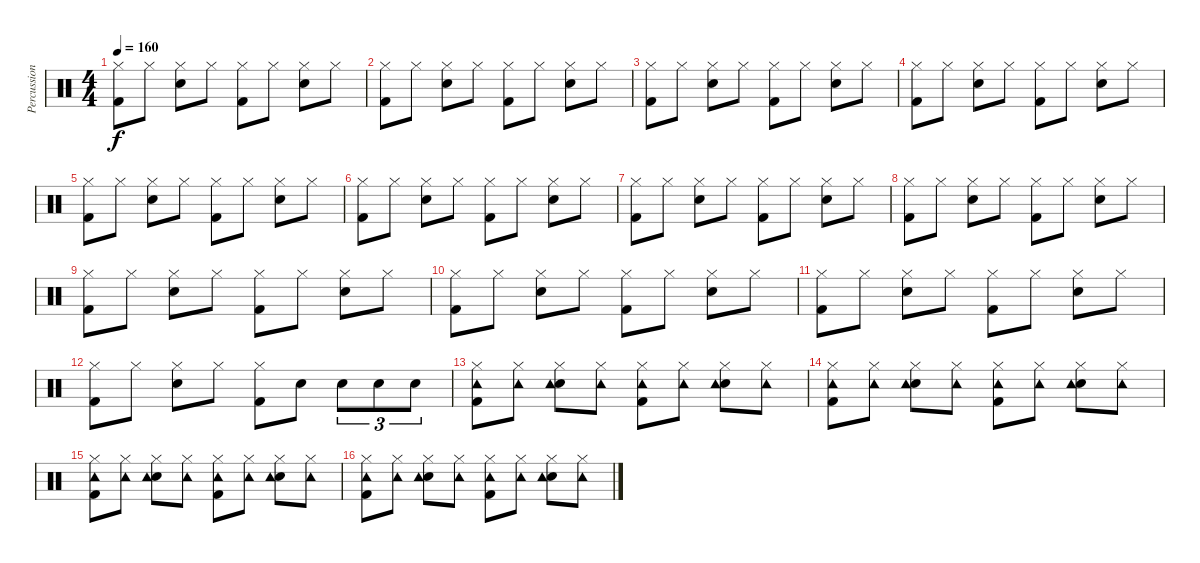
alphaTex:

\track ("Percussion" "Percussion") {instrument percussion}
\staff {score}
\articulation defaults
\ts (4 4)
\tempo 160
\clef neutral
\ks c
("Hi-Hat (closed)" "Kick (hit) 2").8{dy f} "Hi-Hat (closed)".8 ("Hi-Hat (closed)" "Snare (hit) 2").8 "Hi-Hat (closed)".8 ("Hi-Hat (closed)" "Kick (hit) 2").8 "Hi-Hat (closed)".8 ("Hi-Hat (closed)" "Snare (hit) 2").8 "Hi-Hat (closed)".8 |
("Hi-Hat (closed)" "Kick (hit) 2").8 "Hi-Hat (closed)".8 ("Hi-Hat (closed)" "Snare (hit) 2").8 "Hi-Hat (closed)".8 ("Hi-Hat (closed)" "Kick (hit) 2").8 "Hi-Hat (closed)".8 ("Hi-Hat (closed)" "Snare (hit) 2").8 "Hi-Hat (closed)".8 |
("Hi-Hat (closed)" "Kick (hit) 2").8 "Hi-Hat (closed)".8 ("Hi-Hat (closed)" "Snare (hit) 2").8 "Hi-Hat (closed)".8 ("Hi-Hat (closed)" "Kick (hit) 2").8 "Hi-Hat (closed)".8 ("Hi-Hat (closed)" "Snare (hit) 2").8 "Hi-Hat (closed)".8 |
("Hi-Hat (closed)" "Kick (hit) 2").8 "Hi-Hat (closed)".8 ("Hi-Hat (closed)" "Snare (hit) 2").8 "Hi-Hat (closed)".8 ("Hi-Hat (closed)" "Kick (hit) 2").8 "Hi-Hat (closed)".8 ("Hi-Hat (closed)" "Snare (hit) 2").8 "Hi-Hat (closed)".8 |
("Hi-Hat (closed)" "Kick (hit) 2").8 "Hi-Hat (closed)".8 ("Hi-Hat (closed)" "Snare (hit) 2").8 "Hi-Hat (closed)".8 ("Hi-Hat (closed)" "Kick (hit) 2").8 "Hi-Hat (closed)".8 ("Hi-Hat (closed)" "Snare (hit) 2").8 "Hi-Hat (closed)".8 |
("Hi-Hat (closed)" "Kick (hit) 2").8 "Hi-Hat (closed)".8 ("Hi-Hat (closed)" "Snare (hit) 2").8 "Hi-Hat (closed)".8 ("Hi-Hat (closed)" "Kick (hit) 2").8 "Hi-Hat (closed)".8 ("Hi-Hat (closed)" "Snare (hit) 2").8 "Hi-Hat (closed)".8 |
("Hi-Hat (closed)" "Kick (hit) 2").8 "Hi-Hat (closed)".8 ("Hi-Hat (closed)" "Snare (hit) 2").8 "Hi-Hat (closed)".8 ("Hi-Hat (closed)" "Kick (hit) 2").8 "Hi-Hat (closed)".8 ("Hi-Hat (closed)" "Snare (hit) 2").8 "Hi-Hat (closed)".8 |
("Hi-Hat (closed)" "Kick (hit) 2").8 "Hi-Hat (closed)".8 ("Hi-Hat (closed)" "Snare (hit) 2").8 "Hi-Hat (closed)".8 ("Hi-Hat (closed)" "Kick (hit) 2").8 "Hi-Hat (closed)".8 ("Hi-Hat (closed)" "Snare (hit) 2").8 "Hi-Hat (closed)".8 |
("Hi-Hat (closed)" "Kick (hit) 2").8 "Hi-Hat (closed)".8 ("Hi-Hat (closed)" "Snare (hit) 2").8 "Hi-Hat (closed)".8 ("Hi-Hat (closed)" "Kick (hit) 2").8 "Hi-Hat (closed)".8 ("Hi-Hat (closed)" "Snare (hit) 2").8 "Hi-Hat (closed)".8 |
("Hi-Hat (closed)" "Kick (hit) 2").8 "Hi-Hat (closed)".8 ("Hi-Hat (closed)" "Snare (hit) 2").8 "Hi-Hat (closed)".8 ("Hi-Hat (closed)" "Kick (hit) 2").8 "Hi-Hat (closed)".8 ("Hi-Hat (closed)" "Snare (hit) 2").8 "Hi-Hat (closed)".8 |
("Hi-Hat (closed)" "Kick (hit) 2").8 "Hi-Hat (closed)".8 ("Hi-Hat (closed)" "Snare (hit) 2").8 "Hi-Hat (closed)".8 ("Hi-Hat (closed)" "Kick (hit) 2").8 "Hi-Hat (closed)".8 ("Hi-Hat (closed)" "Snare (hit) 2").8 "Hi-Hat (closed)".8 |
("Hi-Hat (closed)" "Kick (hit) 2").8 "Hi-Hat (closed)".8 ("Hi-Hat (closed)" "Snare (hit) 2").8 "Hi-Hat (closed)".8 ("Hi-Hat (closed)" "Kick (hit) 2").8 "Snare (hit) 2".8 "Snare (hit) 2".8{tu (3 2)} "Snare (hit) 2".8{tu (3 2)} "Snare (hit) 2".8{tu (3 2)} |
("Hi-Hat (closed)" "Tambourine (hit)" "Kick (hit) 2").8 ("Hi-Hat (closed)" "Tambourine (hit)").8 ("Hi-Hat (closed)" "Snare (hit) 2" "Tambourine (hit)").8 ("Hi-Hat (closed)" "Tambourine (hit)").8 ("Hi-Hat (closed)" "Tambourine (hit)" "Kick (hit) 2").8 ("Hi-Hat (closed)" "Tambourine (hit)").8 ("Hi-Hat (closed)" "Snare (hit) 2" "Tambourine (hit)").8 ("Hi-Hat (closed)" "Tambourine (hit)").8 |
("Hi-Hat (closed)" "Tambourine (hit)" "Kick (hit) 2").8 ("Hi-Hat (closed)" "Tambourine (hit)").8 ("Hi-Hat (closed)" "Snare (hit) 2" "Tambourine (hit)").8 ("Hi-Hat (closed)" "Tambourine (hit)").8 ("Hi-Hat (closed)" "Tambourine (hit)" "Kick (hit) 2").8 ("Hi-Hat (closed)" "Tambourine (hit)").8 ("Hi-Hat (closed)" "Snare (hit) 2" "Tambourine (hit)").8 ("Hi-Hat (closed)" "Tambourine (hit)").8 |
("Hi-Hat (closed)" "Tambourine (hit)" "Kick (hit) 2").8 ("Hi-Hat (closed)" "Tambourine (hit)").8 ("Hi-Hat (closed)" "Snare (hit) 2" "Tambourine (hit)").8 ("Hi-Hat (closed)" "Tambourine (hit)").8 ("Hi-Hat (closed)" "Tambourine (hit)" "Kick (hit) 2").8 ("Hi-Hat (closed)" "Tambourine (hit)").8 ("Hi-Hat (closed)" "Snare (hit) 2" "Tambourine (hit)").8 ("Hi-Hat (closed)" "Tambourine (hit)").8 |
("Hi-Hat (closed)" "Tambourine (hit)" "Kick (hit) 2").8 ("Hi-Hat (closed)" "Tambourine (hit)").8 ("Hi-Hat (closed)" "Snare (hit) 2" "Tambourine (hit)").8 ("Hi-Hat (closed)" "Tambourine (hit)").8 ("Hi-Hat (closed)" "Tambourine (hit)" "Kick (hit) 2").8 ("Hi-Hat (closed)" "Tambourine (hit)").8 ("Hi-Hat (closed)" "Snare (hit) 2" "Tambourine (hit)").8 ("Hi-Hat (closed)" "Tambourine (hit)").8
